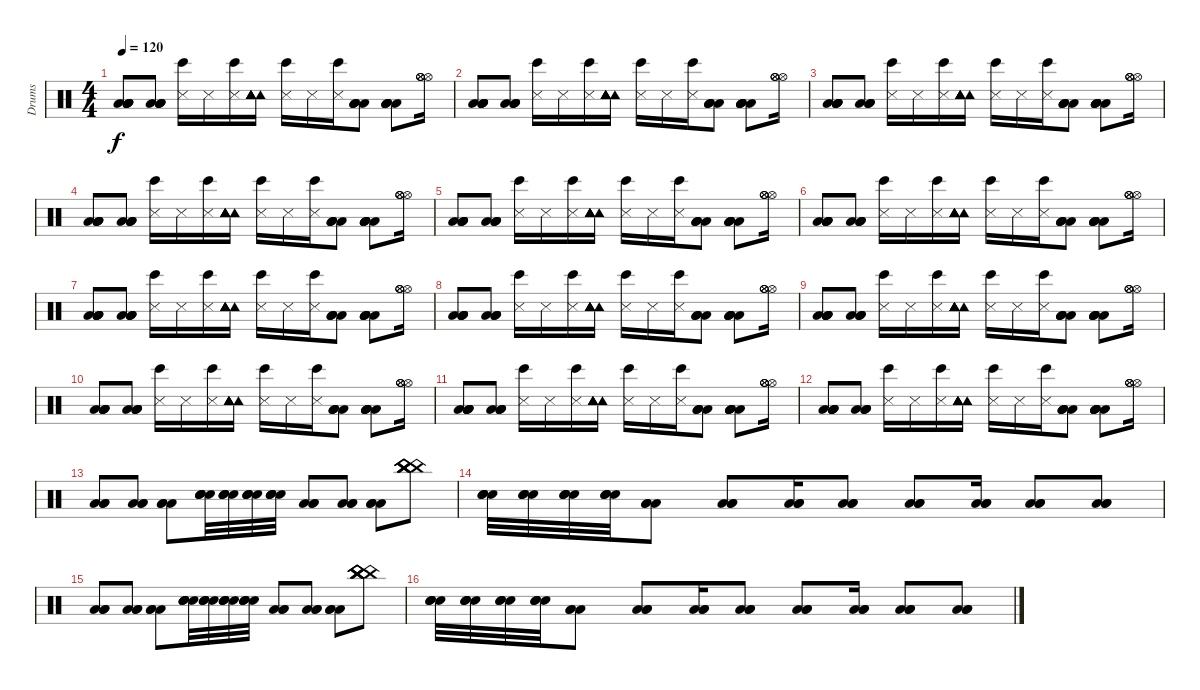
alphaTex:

\track ("Drums" "Drums") {instrument percussion}
\staff {score}
\articulation defaults
\ts (4 4)
\tempo 120
\clef neutral
\ks c
("Low Floor Tom (hit)" "Low Floor Tom (hit)" "Low Floor Tom (hit)" "Low Floor Tom (hit)" "Low Floor Tom (hit)").8{dy f} ("Low Floor Tom (hit)" "Low Floor Tom (hit)" "Low Floor Tom (hit)" "Low Floor Tom (hit)").8 ("Bongo High (hit)" "Snare (side stick) 3").16 "Snare (side stick) 3".16 ("Bongo High (hit)" "Snare (side stick) 3").16 ("Tambourine (hit)" "Tambourine (hit)" "Tambourine (hit)" "Tambourine (hit)" "Tambourine (hit)" "Tambourine (hit)").16 ("Bongo High (hit)" "Snare (side stick) 3").16 "Snare (side stick) 3".16 ("Bongo High (hit)" "Snare (side stick) 3").16 ("Low Floor Tom (hit)" "Low Floor Tom (hit)" "Low Floor Tom (hit)" "Low Floor Tom (hit)").8 ("Low Floor Tom (hit)" "Low Floor Tom (hit)" "Low Floor Tom (hit)" "Low Floor Tom (hit)" "Low Floor Tom (hit)").8 ("Hi-Hat (open)" "Hi-Hat (open)" "Hi-Hat (open)" "Hi-Hat (open)").16 |
("Low Floor Tom (hit)" "Low Floor Tom (hit)" "Low Floor Tom (hit)" "Low Floor Tom (hit)" "Low Floor Tom (hit)").8 ("Low Floor Tom (hit)" "Low Floor Tom (hit)" "Low Floor Tom (hit)" "Low Floor Tom (hit)").8 ("Bongo High (hit)" "Snare (side stick) 3").16 "Snare (side stick) 3".16 ("Bongo High (hit)" "Snare (side stick) 3").16 ("Tambourine (hit)" "Tambourine (hit)" "Tambourine (hit)" "Tambourine (hit)" "Tambourine (hit)" "Tambourine (hit)").16 ("Bongo High (hit)" "Snare (side stick) 3").16 "Snare (side stick) 3".16 ("Bongo High (hit)" "Snare (side stick) 3").16 ("Low Floor Tom (hit)" "Low Floor Tom (hit)" "Low Floor Tom (hit)" "Low Floor Tom (hit)").8 ("Low Floor Tom (hit)" "Low Floor Tom (hit)" "Low Floor Tom (hit)" "Low Floor Tom (hit)" "Low Floor Tom (hit)").8 ("Hi-Hat (open)" "Hi-Hat (open)" "Hi-Hat (open)" "Hi-Hat (open)").16 |
("Low Floor Tom (hit)" "Low Floor Tom (hit)" "Low Floor Tom (hit)" "Low Floor Tom (hit)" "Low Floor Tom (hit)").8 ("Low Floor Tom (hit)" "Low Floor Tom (hit)" "Low Floor Tom (hit)" "Low Floor Tom (hit)").8 ("Bongo High (hit)" "Snare (side stick) 3").16 "Snare (side stick) 3".16 ("Bongo High (hit)" "Snare (side stick) 3").16 ("Tambourine (hit)" "Tambourine (hit)" "Tambourine (hit)" "Tambourine (hit)" "Tambourine (hit)" "Tambourine (hit)").16 ("Bongo High (hit)" "Snare (side stick) 3").16 "Snare (side stick) 3".16 ("Bongo High (hit)" "Snare (side stick) 3").16 ("Low Floor Tom (hit)" "Low Floor Tom (hit)" "Low Floor Tom (hit)" "Low Floor Tom (hit)").8 ("Low Floor Tom (hit)" "Low Floor Tom (hit)" "Low Floor Tom (hit)" "Low Floor Tom (hit)" "Low Floor Tom (hit)").8 ("Hi-Hat (open)" "Hi-Hat (open)" "Hi-Hat (open)" "Hi-Hat (open)").16 |
("Low Floor Tom (hit)" "Low Floor Tom (hit)" "Low Floor Tom (hit)" "Low Floor Tom (hit)" "Low Floor Tom (hit)").8 ("Low Floor Tom (hit)" "Low Floor Tom (hit)" "Low Floor Tom (hit)" "Low Floor Tom (hit)").8 ("Bongo High (hit)" "Snare (side stick) 3").16 "Snare (side stick) 3".16 ("Bongo High (hit)" "Snare (side stick) 3").16 ("Tambourine (hit)" "Tambourine (hit)" "Tambourine (hit)" "Tambourine (hit)" "Tambourine (hit)" "Tambourine (hit)").16 ("Bongo High (hit)" "Snare (side stick) 3").16 "Snare (side stick) 3".16 ("Bongo High (hit)" "Snare (side stick) 3").16 ("Low Floor Tom (hit)" "Low Floor Tom (hit)" "Low Floor Tom (hit)" "Low Floor Tom (hit)").8 ("Low Floor Tom (hit)" "Low Floor Tom (hit)" "Low Floor Tom (hit)" "Low Floor Tom (hit)" "Low Floor Tom (hit)").8 ("Hi-Hat (open)" "Hi-Hat (open)" "Hi-Hat (open)" "Hi-Hat (open)").16 |
("Low Floor Tom (hit)" "Low Floor Tom (hit)" "Low Floor Tom (hit)" "Low Floor Tom (hit)" "Low Floor Tom (hit)").8 ("Low Floor Tom (hit)" "Low Floor Tom (hit)" "Low Floor Tom (hit)" "Low Floor Tom (hit)").8 ("Bongo High (hit)" "Snare (side stick) 3").16 "Snare (side stick) 3".16 ("Bongo High (hit)" "Snare (side stick) 3").16 ("Tambourine (hit)" "Tambourine (hit)" "Tambourine (hit)" "Tambourine (hit)" "Tambourine (hit)" "Tambourine (hit)").16 ("Bongo High (hit)" "Snare (side stick) 3").16 "Snare (side stick) 3".16 ("Bongo High (hit)" "Snare (side stick) 3").16 ("Low Floor Tom (hit)" "Low Floor Tom (hit)" "Low Floor Tom (hit)" "Low Floor Tom (hit)").8 ("Low Floor Tom (hit)" "Low Floor Tom (hit)" "Low Floor Tom (hit)" "Low Floor Tom (hit)" "Low Floor Tom (hit)").8 ("Hi-Hat (open)" "Hi-Hat (open)" "Hi-Hat (open)" "Hi-Hat (open)").16 |
("Low Floor Tom (hit)" "Low Floor Tom (hit)" "Low Floor Tom (hit)" "Low Floor Tom (hit)" "Low Floor Tom (hit)").8 ("Low Floor Tom (hit)" "Low Floor Tom (hit)" "Low Floor Tom (hit)" "Low Floor Tom (hit)").8 ("Bongo High (hit)" "Snare (side stick) 3").16 "Snare (side stick) 3".16 ("Bongo High (hit)" "Snare (side stick) 3").16 ("Tambourine (hit)" "Tambourine (hit)" "Tambourine (hit)" "Tambourine (hit)" "Tambourine (hit)" "Tambourine (hit)").16 ("Bongo High (hit)" "Snare (side stick) 3").16 "Snare (side stick) 3".16 ("Bongo High (hit)" "Snare (side stick) 3").16 ("Low Floor Tom (hit)" "Low Floor Tom (hit)" "Low Floor Tom (hit)" "Low Floor Tom (hit)").8 ("Low Floor Tom (hit)" "Low Floor Tom (hit)" "Low Floor Tom (hit)" "Low Floor Tom (hit)" "Low Floor Tom (hit)").8 ("Hi-Hat (open)" "Hi-Hat (open)" "Hi-Hat (open)" "Hi-Hat (open)").16 |
("Low Floor Tom (hit)" "Low Floor Tom (hit)" "Low Floor Tom (hit)" "Low Floor Tom (hit)" "Low Floor Tom (hit)").8 ("Low Floor Tom (hit)" "Low Floor Tom (hit)" "Low Floor Tom (hit)" "Low Floor Tom (hit)").8 ("Bongo High (hit)" "Snare (side stick) 3").16 "Snare (side stick) 3".16 ("Bongo High (hit)" "Snare (side stick) 3").16 ("Tambourine (hit)" "Tambourine (hit)" "Tambourine (hit)" "Tambourine (hit)" "Tambourine (hit)" "Tambourine (hit)").16 ("Bongo High (hit)" "Snare (side stick) 3").16 "Snare (side stick) 3".16 ("Bongo High (hit)" "Snare (side stick) 3").16 ("Low Floor Tom (hit)" "Low Floor Tom (hit)" "Low Floor Tom (hit)" "Low Floor Tom (hit)").8 ("Low Floor Tom (hit)" "Low Floor Tom (hit)" "Low Floor Tom (hit)" "Low Floor Tom (hit)" "Low Floor Tom (hit)").8 ("Hi-Hat (open)" "Hi-Hat (open)" "Hi-Hat (open)" "Hi-Hat (open)").16 |
("Low Floor Tom (hit)" "Low Floor Tom (hit)" "Low Floor Tom (hit)" "Low Floor Tom (hit)" "Low Floor Tom (hit)").8 ("Low Floor Tom (hit)" "Low Floor Tom (hit)" "Low Floor Tom (hit)" "Low Floor Tom (hit)").8 ("Bongo High (hit)" "Snare (side stick) 3").16 "Snare (side stick) 3".16 ("Bongo High (hit)" "Snare (side stick) 3").16 ("Tambourine (hit)" "Tambourine (hit)" "Tambourine (hit)" "Tambourine (hit)" "Tambourine (hit)" "Tambourine (hit)").16 ("Bongo High (hit)" "Snare (side stick) 3").16 "Snare (side stick) 3".16 ("Bongo High (hit)" "Snare (side stick) 3").16 ("Low Floor Tom (hit)" "Low Floor Tom (hit)" "Low Floor Tom (hit)" "Low Floor Tom (hit)").8 ("Low Floor Tom (hit)" "Low Floor Tom (hit)" "Low Floor Tom (hit)" "Low Floor Tom (hit)" "Low Floor Tom (hit)").8 ("Hi-Hat (open)" "Hi-Hat (open)" "Hi-Hat (open)" "Hi-Hat (open)").16 |
("Low Floor Tom (hit)" "Low Floor Tom (hit)" "Low Floor Tom (hit)" "Low Floor Tom (hit)" "Low Floor Tom (hit)").8 ("Low Floor Tom (hit)" "Low Floor Tom (hit)" "Low Floor Tom (hit)" "Low Floor Tom (hit)").8 ("Bongo High (hit)" "Snare (side stick) 3").16 "Snare (side stick) 3".16 ("Bongo High (hit)" "Snare (side stick) 3").16 ("Tambourine (hit)" "Tambourine (hit)" "Tambourine (hit)" "Tambourine (hit)" "Tambourine (hit)" "Tambourine (hit)").16 ("Bongo High (hit)" "Snare (side stick) 3").16 "Snare (side stick) 3".16 ("Bongo High (hit)" "Snare (side stick) 3").16 ("Low Floor Tom (hit)" "Low Floor Tom (hit)" "Low Floor Tom (hit)" "Low Floor Tom (hit)").8 ("Low Floor Tom (hit)" "Low Floor Tom (hit)" "Low Floor Tom (hit)" "Low Floor Tom (hit)" "Low Floor Tom (hit)").8 ("Hi-Hat (open)" "Hi-Hat (open)" "Hi-Hat (open)" "Hi-Hat (open)").16 |
("Low Floor Tom (hit)" "Low Floor Tom (hit)" "Low Floor Tom (hit)" "Low Floor Tom (hit)" "Low Floor Tom (hit)").8 ("Low Floor Tom (hit)" "Low Floor Tom (hit)" "Low Floor Tom (hit)" "Low Floor Tom (hit)").8 ("Bongo High (hit)" "Snare (side stick) 3").16 "Snare (side stick) 3".16 ("Bongo High (hit)" "Snare (side stick) 3").16 ("Tambourine (hit)" "Tambourine (hit)" "Tambourine (hit)" "Tambourine (hit)" "Tambourine (hit)" "Tambourine (hit)").16 ("Bongo High (hit)" "Snare (side stick) 3").16 "Snare (side stick) 3".16 ("Bongo High (hit)" "Snare (side stick) 3").16 ("Low Floor Tom (hit)" "Low Floor Tom (hit)" "Low Floor Tom (hit)" "Low Floor Tom (hit)").8 ("Low Floor Tom (hit)" "Low Floor Tom (hit)" "Low Floor Tom (hit)" "Low Floor Tom (hit)" "Low Floor Tom (hit)").8 ("Hi-Hat (open)" "Hi-Hat (open)" "Hi-Hat (open)" "Hi-Hat (open)").16 |
("Low Floor Tom (hit)" "Low Floor Tom (hit)" "Low Floor Tom (hit)" "Low Floor Tom (hit)" "Low Floor Tom (hit)").8 ("Low Floor Tom (hit)" "Low Floor Tom (hit)" "Low Floor Tom (hit)" "Low Floor Tom (hit)").8 ("Bongo High (hit)" "Snare (side stick) 3").16 "Snare (side stick) 3".16 ("Bongo High (hit)" "Snare (side stick) 3").16 ("Tambourine (hit)" "Tambourine (hit)" "Tambourine (hit)" "Tambourine (hit)" "Tambourine (hit)" "Tambourine (hit)").16 ("Bongo High (hit)" "Snare (side stick) 3").16 "Snare (side stick) 3".16 ("Bongo High (hit)" "Snare (side stick) 3").16 ("Low Floor Tom (hit)" "Low Floor Tom (hit)" "Low Floor Tom (hit)" "Low Floor Tom (hit)").8 ("Low Floor Tom (hit)" "Low Floor Tom (hit)" "Low Floor Tom (hit)" "Low Floor Tom (hit)" "Low Floor Tom (hit)").8 ("Hi-Hat (open)" "Hi-Hat (open)" "Hi-Hat (open)" "Hi-Hat (open)").16 |
("Low Floor Tom (hit)" "Low Floor Tom (hit)" "Low Floor Tom (hit)" "Low Floor Tom (hit)" "Low Floor Tom (hit)").8 ("Low Floor Tom (hit)" "Low Floor Tom (hit)" "Low Floor Tom (hit)" "Low Floor Tom (hit)").8 ("Bongo High (hit)" "Snare (side stick) 3").16 "Snare (side stick) 3".16 ("Bongo High (hit)" "Snare (side stick) 3").16 ("Tambourine (hit)" "Tambourine (hit)" "Tambourine (hit)" "Tambourine (hit)" "Tambourine (hit)" "Tambourine (hit)").16 ("Bongo High (hit)" "Snare (side stick) 3").16 "Snare (side stick) 3".16 ("Bongo High (hit)" "Snare (side stick) 3").16 ("Low Floor Tom (hit)" "Low Floor Tom (hit)" "Low Floor Tom (hit)" "Low Floor Tom (hit)").8 ("Low Floor Tom (hit)" "Low Floor Tom (hit)" "Low Floor Tom (hit)" "Low Floor Tom (hit)" "Low Floor Tom (hit)").8 ("Hi-Hat (open)" "Hi-Hat (open)" "Hi-Hat (open)" "Hi-Hat (open)").16 |
("Low Floor Tom (hit)" "Low Floor Tom (hit)" "Low Floor Tom (hit)").8 ("Low Floor Tom (hit)" "Low Floor Tom (hit)" "Low Floor Tom (hit)").8 ("Low Floor Tom (hit)" "Low Floor Tom (hit)" "Low Floor Tom (hit)").8 ("Snare (hit) 2" "Snare (hit) 2" "Snare (hit) 2" "Snare (hit) 2").32 ("Snare (hit) 2" "Snare (hit) 2" "Snare (hit) 2" "Snare (hit) 2").32 ("Snare (hit) 2" "Snare (hit) 2" "Snare (hit) 2" "Snare (hit) 2").32 ("Snare (hit) 2" "Snare (hit) 2" "Snare (hit) 2" "Snare (hit) 2").32 ("Low Floor Tom (hit)" "Low Floor Tom (hit)" "Low Floor Tom (hit)").8 ("Low Floor Tom (hit)" "Low Floor Tom (hit)" "Low Floor Tom (hit)").8 ("Low Floor Tom (hit)" "Low Floor Tom (hit)" "Low Floor Tom (hit)").8 ("China (hit)" "China (hit)" "China (hit)" "China (hit)" "China (hit)" "China (hit)").8 |
("Snare (hit) 2" "Snare (hit) 2" "Snare (hit) 2" "Snare (hit) 2").32 ("Snare (hit) 2" "Snare (hit) 2" "Snare (hit) 2" "Snare (hit) 2").32 ("Snare (hit) 2" "Snare (hit) 2" "Snare (hit) 2" "Snare (hit) 2").32 ("Snare (hit) 2" "Snare (hit) 2" "Snare (hit) 2" "Snare (hit) 2").32 ("Low Floor Tom (hit)" "Low Floor Tom (hit)" "Low Floor Tom (hit)").8 ("Low Floor Tom (hit)" "Low Floor Tom (hit)" "Low Floor Tom (hit)").8 ("Low Floor Tom (hit)" "Low Floor Tom (hit)" "Low Floor Tom (hit)").16 ("Low Floor Tom (hit)" "Low Floor Tom (hit)" "Low Floor Tom (hit)").8 ("Low Floor Tom (hit)" "Low Floor Tom (hit)" "Low Floor Tom (hit)").8 ("Low Floor Tom (hit)" "Low Floor Tom (hit)" "Low Floor Tom (hit)").16 ("Low Floor Tom (hit)" "Low Floor Tom (hit)" "Low Floor Tom (hit)").8 ("Low Floor Tom (hit)" "Low Floor Tom (hit)" "Low Floor Tom (hit)").8 |
("Low Floor Tom (hit)" "Low Floor Tom (hit)" "Low Floor Tom (hit)").8 ("Low Floor Tom (hit)" "Low Floor Tom (hit)" "Low Floor Tom (hit)").8 ("Low Floor Tom (hit)" "Low Floor Tom (hit)" "Low Floor Tom (hit)").8 ("Snare (hit) 2" "Snare (hit) 2" "Snare (hit) 2" "Snare (hit) 2").32 ("Snare (hit) 2" "Snare (hit) 2" "Snare (hit) 2" "Snare (hit) 2").32 ("Snare (hit) 2" "Snare (hit) 2" "Snare (hit) 2" "Snare (hit) 2").32 ("Snare (hit) 2" "Snare (hit) 2" "Snare (hit) 2" "Snare (hit) 2").32 ("Low Floor Tom (hit)" "Low Floor Tom (hit)" "Low Floor Tom (hit)").8 ("Low Floor Tom (hit)" "Low Floor Tom (hit)" "Low Floor Tom (hit)").8 ("Low Floor Tom (hit)" "Low Floor Tom (hit)" "Low Floor Tom (hit)").8 ("China (hit)" "China (hit)" "China (hit)" "China (hit)" "China (hit)" "China (hit)").8 |
("Snare (hit) 2" "Snare (hit) 2" "Snare (hit) 2" "Snare (hit) 2").32 ("Snare (hit) 2" "Snare (hit) 2" "Snare (hit) 2" "Snare (hit) 2").32 ("Snare (hit) 2" "Snare (hit) 2" "Snare (hit) 2" "Snare (hit) 2").32 ("Snare (hit) 2" "Snare (hit) 2" "Snare (hit) 2" "Snare (hit) 2").32 ("Low Floor Tom (hit)" "Low Floor Tom (hit)" "Low Floor Tom (hit)").8 ("Low Floor Tom (hit)" "Low Floor Tom (hit)" "Low Floor Tom (hit)").8 ("Low Floor Tom (hit)" "Low Floor Tom (hit)" "Low Floor Tom (hit)").16 ("Low Floor Tom (hit)" "Low Floor Tom (hit)" "Low Floor Tom (hit)").8 ("Low Floor Tom (hit)" "Low Floor Tom (hit)" "Low Floor Tom (hit)").8 ("Low Floor Tom (hit)" "Low Floor Tom (hit)" "Low Floor Tom (hit)").16 ("Low Floor Tom (hit)" "Low Floor Tom (hit)" "Low Floor Tom (hit)").8 ("Low Floor Tom (hit)" "Low Floor Tom (hit)" "Low Floor Tom (hit)").8
